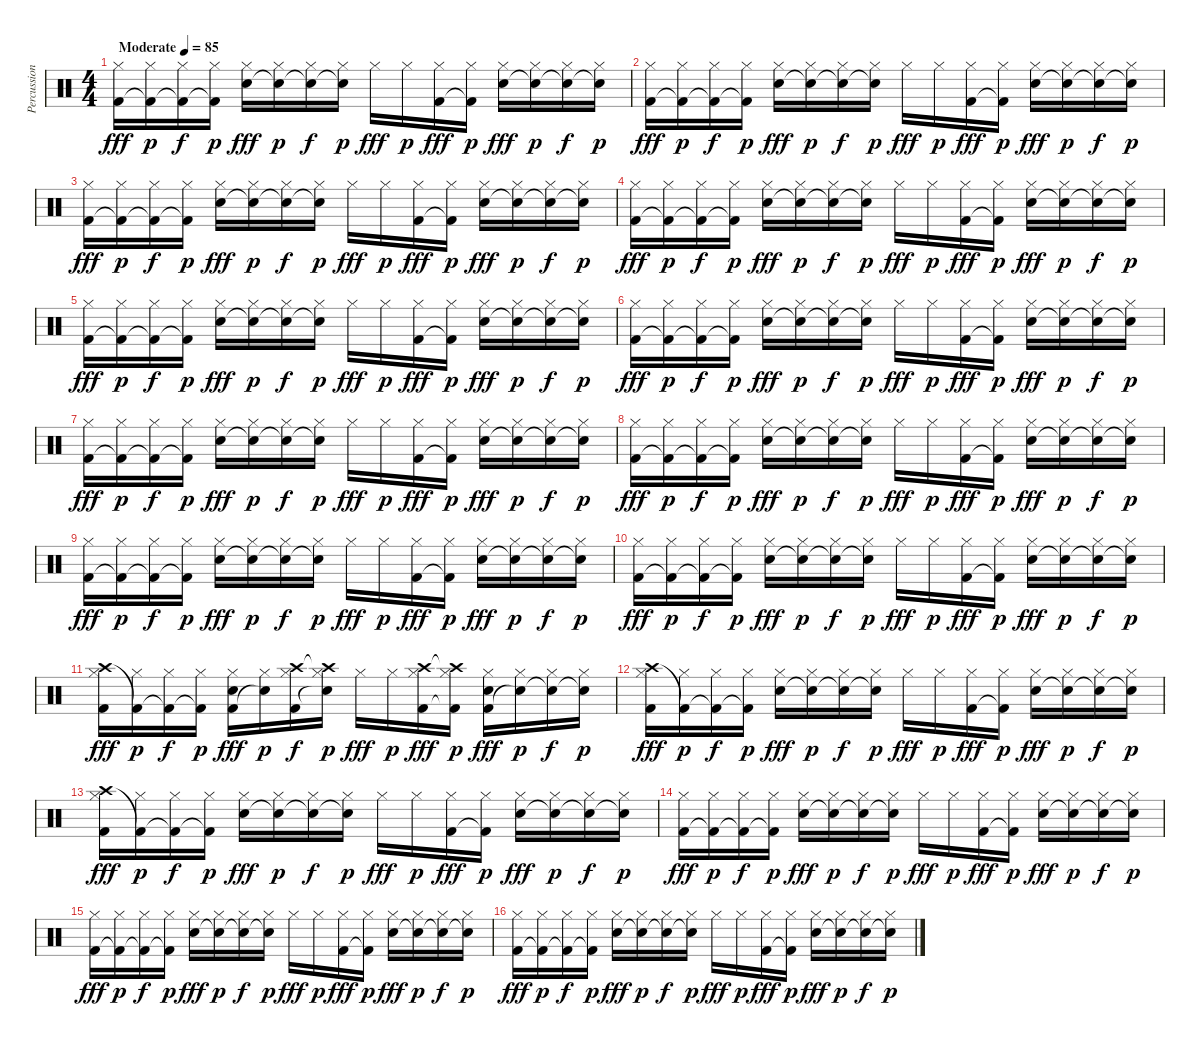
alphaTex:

\track ("Percussion" "Percussion") {instrument percussion}
\staff {score}
\articulation defaults
\ts (4 4)
\tempo (85 "Moderate")
\clef neutral
\ks c
("Hi-Hat (closed)" "Kick (hit) 2").16{dy fff} ("Hi-Hat (closed)" "Kick (hit) 2"{t}).16{dy p} ("Hi-Hat (closed)" "Kick (hit) 2"{t}).16{dy f} ("Hi-Hat (closed)" "Kick (hit) 2"{t}).16{dy p} ("Hi-Hat (closed)" "Snare (hit) 2").16{dy fff} ("Hi-Hat (closed)" "Snare (hit) 2"{t}).16{dy p} ("Hi-Hat (closed)" "Snare (hit) 2"{t}).16{dy f} ("Hi-Hat (closed)" "Snare (hit) 2"{t}).16{dy p} "Hi-Hat (closed)".16{dy fff} "Hi-Hat (closed)".16{dy p} ("Hi-Hat (closed)" "Kick (hit) 2").16{dy fff} ("Hi-Hat (closed)" "Kick (hit) 2"{t}).16{dy p} ("Hi-Hat (closed)" "Snare (hit) 2").16{dy fff} ("Hi-Hat (closed)" "Snare (hit) 2"{t}).16{dy p} ("Hi-Hat (closed)" "Snare (hit) 2"{t}).16{dy f} ("Hi-Hat (closed)" "Snare (hit) 2"{t}).16{dy p} |
("Hi-Hat (closed)" "Kick (hit) 2").16{dy fff} ("Hi-Hat (closed)" "Kick (hit) 2"{t}).16{dy p} ("Hi-Hat (closed)" "Kick (hit) 2"{t}).16{dy f} ("Hi-Hat (closed)" "Kick (hit) 2"{t}).16{dy p} ("Hi-Hat (closed)" "Snare (hit) 2").16{dy fff} ("Hi-Hat (closed)" "Snare (hit) 2"{t}).16{dy p} ("Hi-Hat (closed)" "Snare (hit) 2"{t}).16{dy f} ("Hi-Hat (closed)" "Snare (hit) 2"{t}).16{dy p} "Hi-Hat (closed)".16{dy fff} "Hi-Hat (closed)".16{dy p} ("Hi-Hat (closed)" "Kick (hit) 2").16{dy fff} ("Hi-Hat (closed)" "Kick (hit) 2"{t}).16{dy p} ("Hi-Hat (closed)" "Snare (hit) 2").16{dy fff} ("Hi-Hat (closed)" "Snare (hit) 2"{t}).16{dy p} ("Hi-Hat (closed)" "Snare (hit) 2"{t}).16{dy f} ("Hi-Hat (closed)" "Snare (hit) 2"{t}).16{dy p} |
("Hi-Hat (closed)" "Kick (hit) 2").16{dy fff} ("Hi-Hat (closed)" "Kick (hit) 2"{t}).16{dy p} ("Hi-Hat (closed)" "Kick (hit) 2"{t}).16{dy f} ("Hi-Hat (closed)" "Kick (hit) 2"{t}).16{dy p} ("Hi-Hat (closed)" "Snare (hit) 2").16{dy fff} ("Hi-Hat (closed)" "Snare (hit) 2"{t}).16{dy p} ("Hi-Hat (closed)" "Snare (hit) 2"{t}).16{dy f} ("Hi-Hat (closed)" "Snare (hit) 2"{t}).16{dy p} "Hi-Hat (closed)".16{dy fff} "Hi-Hat (closed)".16{dy p} ("Hi-Hat (closed)" "Kick (hit) 2").16{dy fff} ("Hi-Hat (closed)" "Kick (hit) 2"{t}).16{dy p} ("Hi-Hat (closed)" "Snare (hit) 2").16{dy fff} ("Hi-Hat (closed)" "Snare (hit) 2"{t}).16{dy p} ("Hi-Hat (closed)" "Snare (hit) 2"{t}).16{dy f} ("Hi-Hat (closed)" "Snare (hit) 2"{t}).16{dy p} |
("Hi-Hat (closed)" "Kick (hit) 2").16{dy fff} ("Hi-Hat (closed)" "Kick (hit) 2"{t}).16{dy p} ("Hi-Hat (closed)" "Kick (hit) 2"{t}).16{dy f} ("Hi-Hat (closed)" "Kick (hit) 2"{t}).16{dy p} ("Hi-Hat (closed)" "Snare (hit) 2").16{dy fff} ("Hi-Hat (closed)" "Snare (hit) 2"{t}).16{dy p} ("Hi-Hat (closed)" "Snare (hit) 2"{t}).16{dy f} ("Hi-Hat (closed)" "Snare (hit) 2"{t}).16{dy p} "Hi-Hat (closed)".16{dy fff} "Hi-Hat (closed)".16{dy p} ("Hi-Hat (closed)" "Kick (hit) 2").16{dy fff} ("Hi-Hat (closed)" "Kick (hit) 2"{t}).16{dy p} ("Hi-Hat (closed)" "Snare (hit) 2").16{dy fff} ("Hi-Hat (closed)" "Snare (hit) 2"{t}).16{dy p} ("Hi-Hat (closed)" "Snare (hit) 2"{t}).16{dy f} ("Hi-Hat (closed)" "Snare (hit) 2"{t}).16{dy p} |
("Hi-Hat (closed)" "Kick (hit) 2").16{dy fff} ("Hi-Hat (closed)" "Kick (hit) 2"{t}).16{dy p} ("Hi-Hat (closed)" "Kick (hit) 2"{t}).16{dy f} ("Hi-Hat (closed)" "Kick (hit) 2"{t}).16{dy p} ("Hi-Hat (closed)" "Snare (hit) 2").16{dy fff} ("Hi-Hat (closed)" "Snare (hit) 2"{t}).16{dy p} ("Hi-Hat (closed)" "Snare (hit) 2"{t}).16{dy f} ("Hi-Hat (closed)" "Snare (hit) 2"{t}).16{dy p} "Hi-Hat (closed)".16{dy fff} "Hi-Hat (closed)".16{dy p} ("Hi-Hat (closed)" "Kick (hit) 2").16{dy fff} ("Hi-Hat (closed)" "Kick (hit) 2"{t}).16{dy p} ("Hi-Hat (closed)" "Snare (hit) 2").16{dy fff} ("Hi-Hat (closed)" "Snare (hit) 2"{t}).16{dy p} ("Hi-Hat (closed)" "Snare (hit) 2"{t}).16{dy f} ("Hi-Hat (closed)" "Snare (hit) 2"{t}).16{dy p} |
("Hi-Hat (closed)" "Kick (hit) 2").16{dy fff} ("Hi-Hat (closed)" "Kick (hit) 2"{t}).16{dy p} ("Hi-Hat (closed)" "Kick (hit) 2"{t}).16{dy f} ("Hi-Hat (closed)" "Kick (hit) 2"{t}).16{dy p} ("Hi-Hat (closed)" "Snare (hit) 2").16{dy fff} ("Hi-Hat (closed)" "Snare (hit) 2"{t}).16{dy p} ("Hi-Hat (closed)" "Snare (hit) 2"{t}).16{dy f} ("Hi-Hat (closed)" "Snare (hit) 2"{t}).16{dy p} "Hi-Hat (closed)".16{dy fff} "Hi-Hat (closed)".16{dy p} ("Hi-Hat (closed)" "Kick (hit) 2").16{dy fff} ("Hi-Hat (closed)" "Kick (hit) 2"{t}).16{dy p} ("Hi-Hat (closed)" "Snare (hit) 2").16{dy fff} ("Hi-Hat (closed)" "Snare (hit) 2"{t}).16{dy p} ("Hi-Hat (closed)" "Snare (hit) 2"{t}).16{dy f} ("Hi-Hat (closed)" "Snare (hit) 2"{t}).16{dy p} |
("Hi-Hat (closed)" "Kick (hit) 2").16{dy fff} ("Hi-Hat (closed)" "Kick (hit) 2"{t}).16{dy p} ("Hi-Hat (closed)" "Kick (hit) 2"{t}).16{dy f} ("Hi-Hat (closed)" "Kick (hit) 2"{t}).16{dy p} ("Hi-Hat (closed)" "Snare (hit) 2").16{dy fff} ("Hi-Hat (closed)" "Snare (hit) 2"{t}).16{dy p} ("Hi-Hat (closed)" "Snare (hit) 2"{t}).16{dy f} ("Hi-Hat (closed)" "Snare (hit) 2"{t}).16{dy p} "Hi-Hat (closed)".16{dy fff} "Hi-Hat (closed)".16{dy p} ("Hi-Hat (closed)" "Kick (hit) 2").16{dy fff} ("Hi-Hat (closed)" "Kick (hit) 2"{t}).16{dy p} ("Hi-Hat (closed)" "Snare (hit) 2").16{dy fff} ("Hi-Hat (closed)" "Snare (hit) 2"{t}).16{dy p} ("Hi-Hat (closed)" "Snare (hit) 2"{t}).16{dy f} ("Hi-Hat (closed)" "Snare (hit) 2"{t}).16{dy p} |
("Hi-Hat (closed)" "Kick (hit) 2").16{dy fff} ("Hi-Hat (closed)" "Kick (hit) 2"{t}).16{dy p} ("Hi-Hat (closed)" "Kick (hit) 2"{t}).16{dy f} ("Hi-Hat (closed)" "Kick (hit) 2"{t}).16{dy p} ("Hi-Hat (closed)" "Snare (hit) 2").16{dy fff} ("Hi-Hat (closed)" "Snare (hit) 2"{t}).16{dy p} ("Hi-Hat (closed)" "Snare (hit) 2"{t}).16{dy f} ("Hi-Hat (closed)" "Snare (hit) 2"{t}).16{dy p} "Hi-Hat (closed)".16{dy fff} "Hi-Hat (closed)".16{dy p} ("Hi-Hat (closed)" "Kick (hit) 2").16{dy fff} ("Hi-Hat (closed)" "Kick (hit) 2"{t}).16{dy p} ("Hi-Hat (closed)" "Snare (hit) 2").16{dy fff} ("Hi-Hat (closed)" "Snare (hit) 2"{t}).16{dy p} ("Hi-Hat (closed)" "Snare (hit) 2"{t}).16{dy f} ("Hi-Hat (closed)" "Snare (hit) 2"{t}).16{dy p} |
("Hi-Hat (closed)" "Kick (hit) 2").16{dy fff} ("Hi-Hat (closed)" "Kick (hit) 2"{t}).16{dy p} ("Hi-Hat (closed)" "Kick (hit) 2"{t}).16{dy f} ("Hi-Hat (closed)" "Kick (hit) 2"{t}).16{dy p} ("Hi-Hat (closed)" "Snare (hit) 2").16{dy fff} ("Hi-Hat (closed)" "Snare (hit) 2"{t}).16{dy p} ("Hi-Hat (closed)" "Snare (hit) 2"{t}).16{dy f} ("Hi-Hat (closed)" "Snare (hit) 2"{t}).16{dy p} "Hi-Hat (closed)".16{dy fff} "Hi-Hat (closed)".16{dy p} ("Hi-Hat (closed)" "Kick (hit) 2").16{dy fff} ("Hi-Hat (closed)" "Kick (hit) 2"{t}).16{dy p} ("Hi-Hat (closed)" "Snare (hit) 2").16{dy fff} ("Hi-Hat (closed)" "Snare (hit) 2"{t}).16{dy p} ("Hi-Hat (closed)" "Snare (hit) 2"{t}).16{dy f} ("Hi-Hat (closed)" "Snare (hit) 2"{t}).16{dy p} |
("Hi-Hat (closed)" "Kick (hit) 2").16{dy fff} ("Hi-Hat (closed)" "Kick (hit) 2"{t}).16{dy p} ("Hi-Hat (closed)" "Kick (hit) 2"{t}).16{dy f} ("Hi-Hat (closed)" "Kick (hit) 2"{t}).16{dy p} ("Hi-Hat (closed)" "Snare (hit) 2").16{dy fff} ("Hi-Hat (closed)" "Snare (hit) 2"{t}).16{dy p} ("Hi-Hat (closed)" "Snare (hit) 2"{t}).16{dy f} ("Hi-Hat (closed)" "Snare (hit) 2"{t}).16{dy p} "Hi-Hat (closed)".16{dy fff} "Hi-Hat (closed)".16{dy p} ("Hi-Hat (closed)" "Kick (hit) 2").16{dy fff} ("Hi-Hat (closed)" "Kick (hit) 2"{t}).16{dy p} ("Hi-Hat (closed)" "Snare (hit) 2").16{dy fff} ("Hi-Hat (closed)" "Snare (hit) 2"{t}).16{dy p} ("Hi-Hat (closed)" "Snare (hit) 2"{t}).16{dy f} ("Hi-Hat (closed)" "Snare (hit) 2"{t}).16{dy p} |
("Hi-Hat (closed)" "Crash high (hit)" "Kick (hit) 2").16{dy fff} ("Hi-Hat (closed)" "Kick (hit) 2"{t}).16{dy p} ("Hi-Hat (closed)" "Kick (hit) 2"{t}).16{dy f} ("Hi-Hat (closed)" "Kick (hit) 2"{t}).16{dy p} ("Hi-Hat (closed)" "Kick (hit) 2" "Snare (hit) 2").16{dy fff} ("Hi-Hat (closed)" "Snare (hit) 2"{t}).16{dy p} ("Hi-Hat (closed)" "Crash high (hit)" "Kick (hit) 2").16{dy f} ("Hi-Hat (closed)" "Crash high (hit)"{t} "Snare (hit) 2"{t}).16{dy p} "Hi-Hat (closed)".16{dy fff} "Hi-Hat (closed)".16{dy p} ("Hi-Hat (closed)" "Crash high (hit)" "Kick (hit) 2").16{dy fff} ("Hi-Hat (closed)" "Crash high (hit)"{t} "Kick (hit) 2"{t}).16{dy p} ("Hi-Hat (closed)" "Kick (hit) 2" "Snare (hit) 2").16{dy fff} ("Hi-Hat (closed)" "Snare (hit) 2"{t}).16{dy p} ("Hi-Hat (closed)" "Snare (hit) 2"{t}).16{dy f} ("Hi-Hat (closed)" "Snare (hit) 2"{t}).16{dy p} |
("Hi-Hat (closed)" "Crash high (hit)" "Kick (hit) 2").16{dy fff} ("Hi-Hat (closed)" "Kick (hit) 2"{t}).16{dy p} ("Hi-Hat (closed)" "Kick (hit) 2"{t}).16{dy f} ("Hi-Hat (closed)" "Kick (hit) 2"{t}).16{dy p} ("Hi-Hat (closed)" "Snare (hit) 2").16{dy fff} ("Hi-Hat (closed)" "Snare (hit) 2"{t}).16{dy p} ("Hi-Hat (closed)" "Snare (hit) 2"{t}).16{dy f} ("Hi-Hat (closed)" "Snare (hit) 2"{t}).16{dy p} "Hi-Hat (closed)".16{dy fff} "Hi-Hat (closed)".16{dy p} ("Hi-Hat (closed)" "Kick (hit) 2").16{dy fff} ("Hi-Hat (closed)" "Kick (hit) 2"{t}).16{dy p} ("Hi-Hat (closed)" "Snare (hit) 2").16{dy fff} ("Hi-Hat (closed)" "Snare (hit) 2"{t}).16{dy p} ("Hi-Hat (closed)" "Snare (hit) 2"{t}).16{dy f} ("Hi-Hat (closed)" "Snare (hit) 2"{t}).16{dy p} |
("Hi-Hat (closed)" "Crash high (hit)" "Kick (hit) 2").16{dy fff} ("Hi-Hat (closed)" "Kick (hit) 2"{t}).16{dy p} ("Hi-Hat (closed)" "Kick (hit) 2"{t}).16{dy f} ("Hi-Hat (closed)" "Kick (hit) 2"{t}).16{dy p} ("Hi-Hat (closed)" "Snare (hit) 2").16{dy fff} ("Hi-Hat (closed)" "Snare (hit) 2"{t}).16{dy p} ("Hi-Hat (closed)" "Snare (hit) 2"{t}).16{dy f} ("Hi-Hat (closed)" "Snare (hit) 2"{t}).16{dy p} "Hi-Hat (closed)".16{dy fff} "Hi-Hat (closed)".16{dy p} ("Hi-Hat (closed)" "Kick (hit) 2").16{dy fff} ("Hi-Hat (closed)" "Kick (hit) 2"{t}).16{dy p} ("Hi-Hat (closed)" "Snare (hit) 2").16{dy fff} ("Hi-Hat (closed)" "Snare (hit) 2"{t}).16{dy p} ("Hi-Hat (closed)" "Snare (hit) 2"{t}).16{dy f} ("Hi-Hat (closed)" "Snare (hit) 2"{t}).16{dy p} |
("Hi-Hat (closed)" "Kick (hit) 2").16{dy fff} ("Hi-Hat (closed)" "Kick (hit) 2"{t}).16{dy p} ("Hi-Hat (closed)" "Kick (hit) 2"{t}).16{dy f} ("Hi-Hat (closed)" "Kick (hit) 2"{t}).16{dy p} ("Hi-Hat (closed)" "Snare (hit) 2").16{dy fff} ("Hi-Hat (closed)" "Snare (hit) 2"{t}).16{dy p} ("Hi-Hat (closed)" "Snare (hit) 2"{t}).16{dy f} ("Hi-Hat (closed)" "Snare (hit) 2"{t}).16{dy p} "Hi-Hat (closed)".16{dy fff} "Hi-Hat (closed)".16{dy p} ("Hi-Hat (closed)" "Kick (hit) 2").16{dy fff} ("Hi-Hat (closed)" "Kick (hit) 2"{t}).16{dy p} ("Hi-Hat (closed)" "Snare (hit) 2").16{dy fff} ("Hi-Hat (closed)" "Snare (hit) 2"{t}).16{dy p} ("Hi-Hat (closed)" "Snare (hit) 2"{t}).16{dy f} ("Hi-Hat (closed)" "Snare (hit) 2"{t}).16{dy p} |
("Hi-Hat (closed)" "Kick (hit) 2").16{dy fff} ("Hi-Hat (closed)" "Kick (hit) 2"{t}).16{dy p} ("Hi-Hat (closed)" "Kick (hit) 2"{t}).16{dy f} ("Hi-Hat (closed)" "Kick (hit) 2"{t}).16{dy p} ("Hi-Hat (closed)" "Snare (hit) 2").16{dy fff} ("Hi-Hat (closed)" "Snare (hit) 2"{t}).16{dy p} ("Hi-Hat (closed)" "Snare (hit) 2"{t}).16{dy f} ("Hi-Hat (closed)" "Snare (hit) 2"{t}).16{dy p} "Hi-Hat (closed)".16{dy fff} "Hi-Hat (closed)".16{dy p} ("Hi-Hat (closed)" "Kick (hit) 2").16{dy fff} ("Hi-Hat (closed)" "Kick (hit) 2"{t}).16{dy p} ("Hi-Hat (closed)" "Snare (hit) 2").16{dy fff} ("Hi-Hat (closed)" "Snare (hit) 2"{t}).16{dy p} ("Hi-Hat (closed)" "Snare (hit) 2"{t}).16{dy f} ("Hi-Hat (closed)" "Snare (hit) 2"{t}).16{dy p} |
("Hi-Hat (closed)" "Kick (hit) 2").16{dy fff} ("Hi-Hat (closed)" "Kick (hit) 2"{t}).16{dy p} ("Hi-Hat (closed)" "Kick (hit) 2"{t}).16{dy f} ("Hi-Hat (closed)" "Kick (hit) 2"{t}).16{dy p} ("Hi-Hat (closed)" "Snare (hit) 2").16{dy fff} ("Hi-Hat (closed)" "Snare (hit) 2"{t}).16{dy p} ("Hi-Hat (closed)" "Snare (hit) 2"{t}).16{dy f} ("Hi-Hat (closed)" "Snare (hit) 2"{t}).16{dy p} "Hi-Hat (closed)".16{dy fff} "Hi-Hat (closed)".16{dy p} ("Hi-Hat (closed)" "Kick (hit) 2").16{dy fff} ("Hi-Hat (closed)" "Kick (hit) 2"{t}).16{dy p} ("Hi-Hat (closed)" "Snare (hit) 2").16{dy fff} ("Hi-Hat (closed)" "Snare (hit) 2"{t}).16{dy p} ("Hi-Hat (closed)" "Snare (hit) 2"{t}).16{dy f} ("Hi-Hat (closed)" "Snare (hit) 2"{t}).16{dy p}
